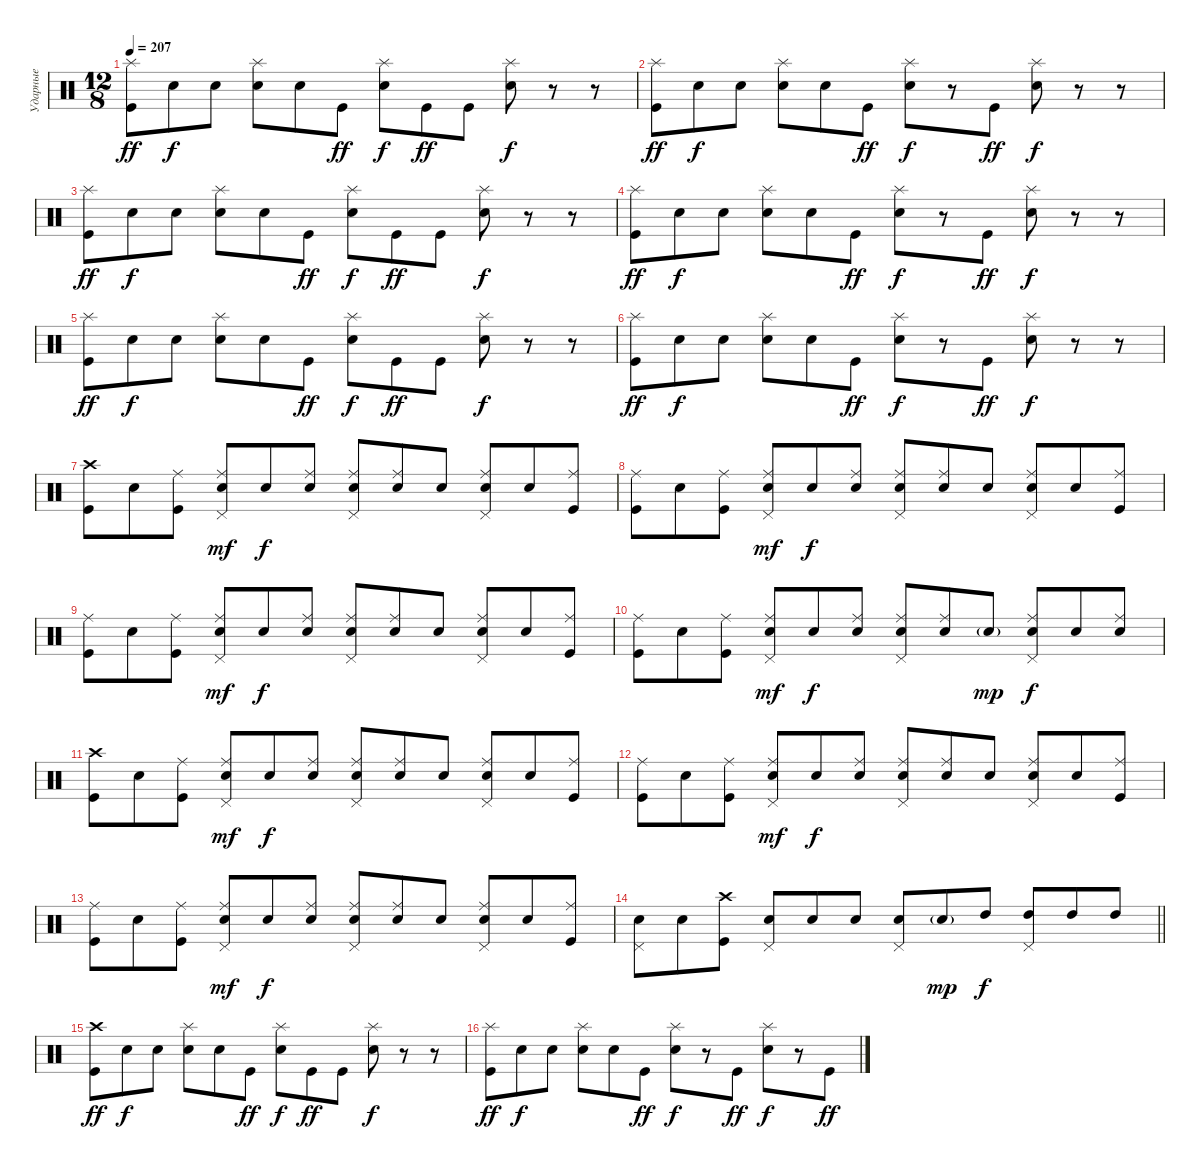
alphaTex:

\track ("Ударные" "Ударные") {instrument percussion}
\staff {score}
\articulation defaults
\ts (12 8)
\tempo 207
\clef neutral
\ks c
("Splash (hit)" "Kick (hit)").8{dy ff} "Snare (hit)".8{dy f} "Snare (hit)".8 ("Splash (hit)" "Electric Snare (hit)").8 "Snare (hit)".8 "Kick (hit)".8{dy ff} ("Splash (hit)" "Snare (hit)").8{dy f} "Kick (hit)".8{dy ff} "Kick (hit)".8 ("Splash (hit)" "Electric Snare (hit)").8{dy f} r.8 r.8 |
("Splash (hit)" "Kick (hit)").8{dy ff} "Snare (hit)".8{dy f} "Snare (hit)".8 ("Splash (hit)" "Electric Snare (hit)").8 "Snare (hit)".8 "Kick (hit)".8{dy ff} ("Splash (hit)" "Snare (hit)").8{dy f} r.8 "Kick (hit)".8{dy ff} ("Splash (hit)" "Electric Snare (hit)").8{dy f} r.8 r.8 |
("Splash (hit)" "Kick (hit)").8{dy ff} "Snare (hit)".8{dy f} "Snare (hit)".8 ("Splash (hit)" "Electric Snare (hit)").8 "Snare (hit)".8 "Kick (hit)".8{dy ff} ("Splash (hit)" "Snare (hit)").8{dy f} "Kick (hit)".8{dy ff} "Kick (hit)".8 ("Splash (hit)" "Electric Snare (hit)").8{dy f} r.8 r.8 |
("Splash (hit)" "Kick (hit)").8{dy ff} "Snare (hit)".8{dy f} "Snare (hit)".8 ("Splash (hit)" "Electric Snare (hit)").8 "Snare (hit)".8 "Kick (hit)".8{dy ff} ("Splash (hit)" "Snare (hit)").8{dy f} r.8 "Kick (hit)".8{dy ff} ("Splash (hit)" "Electric Snare (hit)").8{dy f} r.8 r.8 |
("Splash (hit)" "Kick (hit)").8{dy ff} "Snare (hit)".8{dy f} "Snare (hit)".8 ("Splash (hit)" "Electric Snare (hit)").8 "Snare (hit)".8 "Kick (hit)".8{dy ff} ("Splash (hit)" "Snare (hit)").8{dy f} "Kick (hit)".8{dy ff} "Kick (hit)".8 ("Splash (hit)" "Electric Snare (hit)").8{dy f} r.8 r.8 |
("Splash (hit)" "Kick (hit)").8{dy ff} "Snare (hit)".8{dy f} "Snare (hit)".8 ("Splash (hit)" "Electric Snare (hit)").8 "Snare (hit)".8 "Kick (hit)".8{dy ff} ("Splash (hit)" "Snare (hit)").8{dy f} r.8 "Kick (hit)".8{dy ff} ("Splash (hit)" "Electric Snare (hit)").8{dy f} r.8 r.8 |
("Crash high (hit)" "Kick (hit)").8 "Snare (hit)".8 ("Ride (middle)" "Kick (hit)").8 ("Ride (middle)" "Pedal Hi-Hat (hit)" "Snare (hit)").8{dy mf} "Snare (hit)".8{dy f} ("Ride (middle)" "Snare (hit)").8 ("Ride (middle)" "Pedal Hi-Hat (hit)" "Electric Snare (hit)").8 ("Ride (middle)" "Snare (hit)").8 "Snare (hit)".8 ("Ride (middle)" "Pedal Hi-Hat (hit)" "Snare (hit)").8 "Snare (hit)".8 ("Ride (middle)" "Kick (hit)").8 |
("Ride (middle)" "Kick (hit)").8 "Snare (hit)".8 ("Ride (middle)" "Kick (hit)").8 ("Ride (middle)" "Pedal Hi-Hat (hit)" "Snare (hit)").8{dy mf} "Snare (hit)".8{dy f} ("Ride (middle)" "Snare (hit)").8 ("Ride (middle)" "Pedal Hi-Hat (hit)" "Electric Snare (hit)").8 ("Ride (middle)" "Snare (hit)").8 "Snare (hit)".8 ("Ride (middle)" "Pedal Hi-Hat (hit)" "Snare (hit)").8 "Snare (hit)".8 ("Ride (middle)" "Kick (hit)").8 |
("Ride (middle)" "Kick (hit)").8 "Snare (hit)".8 ("Ride (middle)" "Kick (hit)").8 ("Ride (middle)" "Pedal Hi-Hat (hit)" "Snare (hit)").8{dy mf} "Snare (hit)".8{dy f} ("Ride (middle)" "Snare (hit)").8 ("Ride (middle)" "Pedal Hi-Hat (hit)" "Electric Snare (hit)").8 ("Ride (middle)" "Snare (hit)").8 "Snare (hit)".8 ("Ride (middle)" "Pedal Hi-Hat (hit)" "Snare (hit)").8 "Snare (hit)".8 ("Ride (middle)" "Kick (hit)").8 |
("Ride (middle)" "Kick (hit)").8 "Snare (hit)".8 ("Ride (middle)" "Kick (hit)").8 ("Ride (middle)" "Pedal Hi-Hat (hit)" "Snare (hit)").8{dy mf} "Snare (hit)".8{dy f} ("Ride (middle)" "Snare (hit)").8 ("Ride (middle)" "Pedal Hi-Hat (hit)" "Electric Snare (hit)").8 ("Ride (middle)" "Snare (hit)").8 "Electric Snare (hit)"{g}.8{dy mp} ("Ride (middle)" "Pedal Hi-Hat (hit)" "Electric Snare (hit)").8{dy f} "Electric Snare (hit)".8 ("Ride (middle)" "Electric Snare (hit)").8 |
("Crash high (hit)" "Kick (hit)").8 "Snare (hit)".8 ("Ride (middle)" "Kick (hit)").8 ("Ride (middle)" "Pedal Hi-Hat (hit)" "Snare (hit)").8{dy mf} "Snare (hit)".8{dy f} ("Ride (middle)" "Snare (hit)").8 ("Ride (middle)" "Pedal Hi-Hat (hit)" "Electric Snare (hit)").8 ("Ride (middle)" "Snare (hit)").8 "Snare (hit)".8 ("Ride (middle)" "Pedal Hi-Hat (hit)" "Snare (hit)").8 "Snare (hit)".8 ("Ride (middle)" "Kick (hit)").8 |
("Ride (middle)" "Kick (hit)").8 "Snare (hit)".8 ("Ride (middle)" "Kick (hit)").8 ("Ride (middle)" "Pedal Hi-Hat (hit)" "Snare (hit)").8{dy mf} "Snare (hit)".8{dy f} ("Ride (middle)" "Snare (hit)").8 ("Ride (middle)" "Pedal Hi-Hat (hit)" "Electric Snare (hit)").8 ("Ride (middle)" "Snare (hit)").8 "Snare (hit)".8 ("Ride (middle)" "Pedal Hi-Hat (hit)" "Snare (hit)").8 "Snare (hit)".8 ("Ride (middle)" "Kick (hit)").8 |
("Ride (middle)" "Kick (hit)").8 "Snare (hit)".8 ("Ride (middle)" "Kick (hit)").8 ("Ride (middle)" "Pedal Hi-Hat (hit)" "Snare (hit)").8{dy mf} "Snare (hit)".8{dy f} ("Ride (middle)" "Snare (hit)").8 ("Ride (middle)" "Pedal Hi-Hat (hit)" "Electric Snare (hit)").8 ("Ride (middle)" "Snare (hit)").8 "Snare (hit)".8 ("Ride (middle)" "Pedal Hi-Hat (hit)" "Snare (hit)").8 "Snare (hit)".8 ("Ride (middle)" "Kick (hit)").8 |
\barLineRight lightlight
("Pedal Hi-Hat (hit)" "Electric Snare (hit)").8 "Electric Snare (hit)".8 ("Crash high (hit)" "Kick (hit)").8 ("Pedal Hi-Hat (hit)" "Snare (hit)").8 "Snare (hit)".8 "Electric Snare (hit)".8 ("Pedal Hi-Hat (hit)" "Electric Snare (hit)").8 "Electric Snare (hit)"{g}.8{dy mp} "High Tom (hit)".8{dy f} ("Pedal Hi-Hat (hit)" "High Tom (hit)").8 "High Tom (hit)".8 "High Tom (hit)".8 |
("Crash high (hit)" "Kick (hit)").8{dy ff} "Snare (hit)".8{dy f} "Snare (hit)".8 ("Splash (hit)" "Electric Snare (hit)").8 "Snare (hit)".8 "Kick (hit)".8{dy ff} ("Splash (hit)" "Snare (hit)").8{dy f} "Kick (hit)".8{dy ff} "Kick (hit)".8 ("Splash (hit)" "Electric Snare (hit)").8{dy f} r.8 r.8 |
("Splash (hit)" "Kick (hit)").8{dy ff} "Snare (hit)".8{dy f} "Snare (hit)".8 ("Splash (hit)" "Electric Snare (hit)").8 "Snare (hit)".8 "Kick (hit)".8{dy ff} ("Splash (hit)" "Snare (hit)").8{dy f} r.8 "Kick (hit)".8{dy ff} ("Splash (hit)" "Electric Snare (hit)").8{dy f} r.8 "Kick (hit)".8{dy ff}
